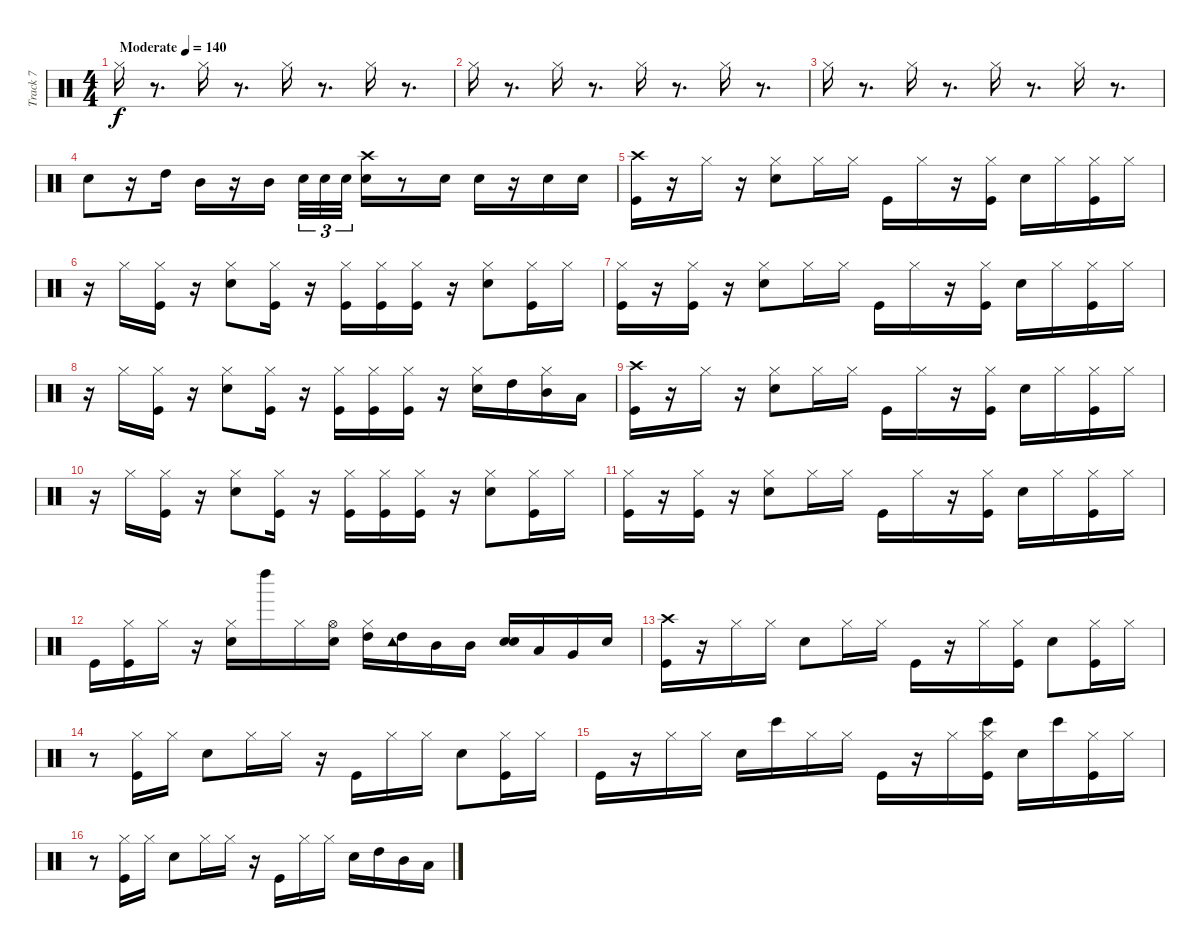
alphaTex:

\track ("Track 7" "Track 7") {instrument percussion}
\staff {score}
\articulation defaults
\ts (4 4)
\tempo (140 "Moderate")
\clef neutral
\ks c "Hi-Hat (closed)".16{dy f}
r.8{d} "Hi-Hat (closed)".16 r.8{d} "Hi-Hat (closed)".16 r.8{d} "Hi-Hat (closed)".16 r.8{d} |
"Hi-Hat (closed)".16 r.8{d} "Hi-Hat (closed)".16 r.8{d} "Hi-Hat (closed)".16 r.8{d} "Hi-Hat (closed)".16 r.8{d} |
"Hi-Hat (closed)".16 r.8{d} "Hi-Hat (closed)".16 r.8{d} "Hi-Hat (closed)".16 r.8{d} "Hi-Hat (closed)".16 r.8{d} |
"Electric Snare (hit)".8 r.16 "High Tom (hit)".16 "Mid Tom (hit)".16 r.16 "Mid Tom (hit)".16{beam splitsecondary} "Electric Snare (hit)".32{tu (3 2)} "Electric Snare (hit)".32{tu (3 2)} "Electric Snare (hit)".32{tu (3 2)} ("Crash high (hit)" "Electric Snare (hit)").16 r.8 "Electric Snare (hit)".16 "Electric Snare (hit)".16 r.16 "Electric Snare (hit)".16 "Electric Snare (hit)".16 |
("Crash high (hit)" "Kick (hit)").16 r.16 "Hi-Hat (closed)".16 r.16 ("Hi-Hat (closed)" "Electric Snare (hit)").8 "Hi-Hat (closed)".16 "Hi-Hat (closed)".16 "Kick (hit)".16 "Hi-Hat (closed)".16 r.16 ("Kick (hit)" "Hi-Hat (closed)").16 "Electric Snare (hit)".16 "Hi-Hat (closed)".16 ("Hi-Hat (closed)" "Kick (hit)").16 "Hi-Hat (closed)".16 |
r.16 "Hi-Hat (closed)".16 ("Hi-Hat (closed)" "Kick (hit)").16 r.16 ("Hi-Hat (closed)" "Electric Snare (hit)").8 ("Hi-Hat (closed)" "Kick (hit)").16 r.16 ("Hi-Hat (closed)" "Kick (hit)").16 ("Kick (hit)" "Hi-Hat (closed)").16 ("Hi-Hat (closed)" "Kick (hit)").16 r.16 ("Hi-Hat (closed)" "Electric Snare (hit)").8 ("Hi-Hat (closed)" "Kick (hit)").16 "Hi-Hat (closed)".16 |
("Hi-Hat (closed)" "Kick (hit)").16 r.16 ("Hi-Hat (closed)" "Kick (hit)").16 r.16 ("Hi-Hat (closed)" "Electric Snare (hit)").8 "Hi-Hat (closed)".16 "Hi-Hat (closed)".16 "Kick (hit)".16 "Hi-Hat (closed)".16 r.16 ("Kick (hit)" "Hi-Hat (closed)").16 "Electric Snare (hit)".16 "Hi-Hat (closed)".16 ("Hi-Hat (closed)" "Kick (hit)").16 "Hi-Hat (closed)".16 |
r.16 "Hi-Hat (closed)".16 ("Hi-Hat (closed)" "Kick (hit)").16 r.16 ("Hi-Hat (closed)" "Electric Snare (hit)").8 ("Hi-Hat (closed)" "Kick (hit)").16 r.16 ("Hi-Hat (closed)" "Kick (hit)").16 ("Kick (hit)" "Hi-Hat (closed)").16 ("Hi-Hat (closed)" "Kick (hit)").16 r.16 ("Hi-Hat (closed)" "Electric Snare (hit)").16 "High Tom (hit)".16 ("Hi-Hat (closed)" "Mid Tom (hit)").16 "Low Tom (hit)".16 |
("Crash high (hit)" "Kick (hit)").16 r.16 "Hi-Hat (closed)".16 r.16 ("Hi-Hat (closed)" "Electric Snare (hit)").8 "Hi-Hat (closed)".16 "Hi-Hat (closed)".16 "Kick (hit)".16 "Hi-Hat (closed)".16 r.16 ("Kick (hit)" "Hi-Hat (closed)").16 "Electric Snare (hit)".16 "Hi-Hat (closed)".16 ("Hi-Hat (closed)" "Kick (hit)").16 "Hi-Hat (closed)".16 |
r.16 "Hi-Hat (closed)".16 ("Hi-Hat (closed)" "Kick (hit)").16 r.16 ("Hi-Hat (closed)" "Electric Snare (hit)").8 ("Hi-Hat (closed)" "Kick (hit)").16 r.16 ("Hi-Hat (closed)" "Kick (hit)").16 ("Kick (hit)" "Hi-Hat (closed)").16 ("Hi-Hat (closed)" "Kick (hit)").16 r.16 ("Hi-Hat (closed)" "Electric Snare (hit)").8 ("Hi-Hat (closed)" "Kick (hit)").16 "Hi-Hat (closed)".16 |
("Hi-Hat (closed)" "Kick (hit)").16 r.16 ("Hi-Hat (closed)" "Kick (hit)").16 r.16 ("Hi-Hat (closed)" "Electric Snare (hit)").8 "Hi-Hat (closed)".16 "Hi-Hat (closed)".16 "Kick (hit)".16 "Hi-Hat (closed)".16 r.16 ("Kick (hit)" "Hi-Hat (closed)").16 "Electric Snare (hit)".16 "Hi-Hat (closed)".16 ("Hi-Hat (closed)" "Kick (hit)").16 "Hi-Hat (closed)".16 |
"Kick (hit)".16 ("Kick (hit)" "Hi-Hat (closed)").16 "Hi-Hat (closed)".16 r.16 ("Hi-Hat (closed)" "Electric Snare (hit)").16 "Left Maraca (hit)".16 "Hi-Hat (closed)".16 ("Hi-Hat (open)" "Electric Snare (hit)").16 ("Hi-Hat (closed)" "High Tom (hit)").16 ("Tambourine (hit)" "High Tom (hit)").16 "Mid Tom (hit)".16 "Mid Tom (hit)".16 ("Electric Snare (hit)" "Electric Snare (hit)").16 "Low Tom (hit)".16 "Very Low Tom (hit)".16 "Electric Snare (hit)".16 |
("Crash high (hit)" "Kick (hit)").16 r.16 "Hi-Hat (closed)".16 "Hi-Hat (closed)".16 "Electric Snare (hit)".8 "Hi-Hat (closed)".16 "Hi-Hat (closed)".16 "Kick (hit)".16 r.16 "Hi-Hat (closed)".16 ("Kick (hit)" "Hi-Hat (closed)").16 "Electric Snare (hit)".8 ("Hi-Hat (closed)" "Kick (hit)").16 "Hi-Hat (closed)".16 |
r.8 ("Hi-Hat (closed)" "Kick (hit)").16 "Hi-Hat (closed)".16 "Electric Snare (hit)".8 "Hi-Hat (closed)".16 "Hi-Hat (closed)".16 r.16 "Kick (hit)".16 "Hi-Hat (closed)".16 "Hi-Hat (closed)".16 "Electric Snare (hit)".8 ("Hi-Hat (closed)" "Kick (hit)").16 "Hi-Hat (closed)".16 |
"Kick (hit)".16 r.16 "Hi-Hat (closed)".16 "Hi-Hat (closed)".16 "Electric Snare (hit)".16 "Bongo High (hit)".16 "Hi-Hat (closed)".16 "Hi-Hat (closed)".16 "Kick (hit)".16 r.16 "Hi-Hat (closed)".16 ("Kick (hit)" "Hi-Hat (closed)" "Bongo High (hit)").16 "Electric Snare (hit)".16 "Bongo High (hit)".16 ("Hi-Hat (closed)" "Kick (hit)").16 "Hi-Hat (closed)".16 |
r.8 ("Hi-Hat (closed)" "Kick (hit)").16 "Hi-Hat (closed)".16 "Electric Snare (hit)".8 "Hi-Hat (closed)".16 "Hi-Hat (closed)".16 r.16 "Kick (hit)".16 "Hi-Hat (closed)".16 "Hi-Hat (closed)".16 "Electric Snare (hit)".16 "High Tom (hit)".16 "Mid Tom (hit)".16 "Low Tom (hit)".16
